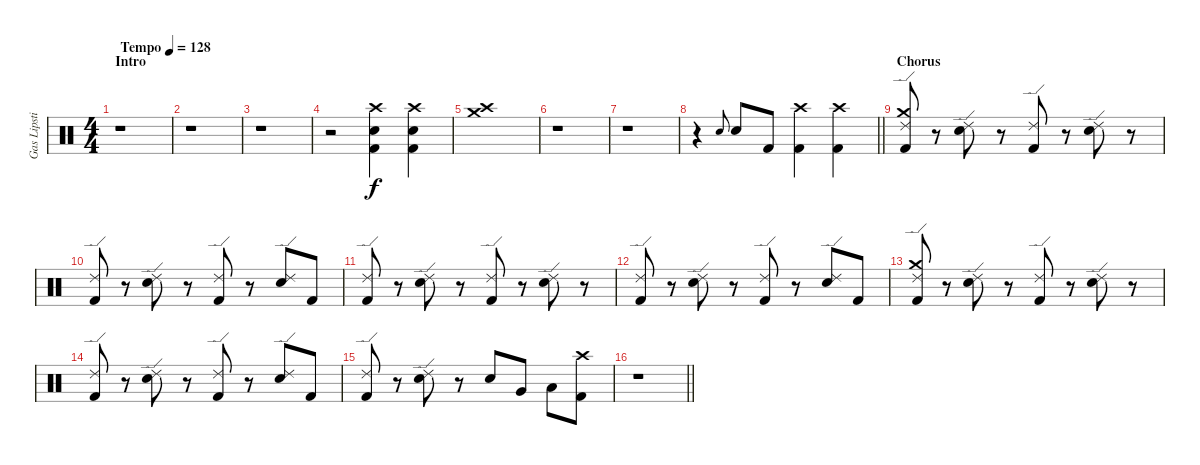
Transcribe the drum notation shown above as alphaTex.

\track ("Gas Lipstick (Drums)" "Gas Lipsti") {instrument percussion}
\staff {score}
\articulation defaults
\ts (4 4)
\section ("" "Intro")
\tempo (128 "Tempo")
\clef neutral
\ks c
r.1{dy f} |
r.1 |
r.1 |
r.2 ("Crash high (hit)" "Snare (hit) 2" "Kick (hit) 2").4 ("Crash high (hit)" "Snare (hit) 2" "Kick (hit) 2").4 |
("Crash medium (hit)" "Crash high (hit)").1 |
r.1 |
r.1 |
\barLineRight lightlight
r.4 "Snare (hit) 2".8{gr onbeat} "Snare (hit) 2".8 "Kick (hit) 2".8 ("Crash high (hit)" "Kick (hit) 2").4 ("Crash high (hit)" "Kick (hit) 2").4 |
\section ("" "Chorus")
("Crash medium (hit)" "Ride (edge) 2" "Kick (hit) 2").8 r.8 ("Ride (edge) 2" "Snare (hit) 2").8 r.8 ("Ride (edge) 2" "Kick (hit) 2").8 r.8 ("Ride (edge) 2" "Snare (hit) 2").8 r.8 |
("Ride (edge) 2" "Kick (hit) 2").8 r.8 ("Ride (edge) 2" "Snare (hit) 2").8 r.8 ("Ride (edge) 2" "Kick (hit) 2").8 r.8 ("Ride (edge) 2" "Snare (hit) 2").8 "Kick (hit) 2".8 |
("Ride (edge) 2" "Kick (hit) 2").8 r.8 ("Ride (edge) 2" "Snare (hit) 2").8 r.8 ("Ride (edge) 2" "Kick (hit) 2").8 r.8 ("Ride (edge) 2" "Snare (hit) 2").8 r.8 |
("Ride (edge) 2" "Kick (hit) 2").8 r.8 ("Ride (edge) 2" "Snare (hit) 2").8 r.8 ("Ride (edge) 2" "Kick (hit) 2").8 r.8 ("Ride (edge) 2" "Snare (hit) 2").8 "Kick (hit) 2".8 |
("Crash medium (hit)" "Ride (edge) 2" "Kick (hit) 2").8 r.8 ("Ride (edge) 2" "Snare (hit) 2").8 r.8 ("Ride (edge) 2" "Kick (hit) 2").8 r.8 ("Ride (edge) 2" "Snare (hit) 2").8 r.8 |
("Ride (edge) 2" "Kick (hit) 2").8 r.8 ("Ride (edge) 2" "Snare (hit) 2").8 r.8 ("Ride (edge) 2" "Kick (hit) 2").8 r.8 ("Ride (edge) 2" "Snare (hit) 2").8 "Kick (hit) 2".8 |
("Ride (edge) 2" "Kick (hit) 2").8 r.8 ("Ride (edge) 2" "Snare (hit) 2").8 r.8 "Snare (hit) 2".8 "Very Low Tom (hit)".8 "Low Floor Tom (hit)".8 ("Crash high (hit)" "Kick (hit) 2").8 |
\barLineRight lightlight
r.1
